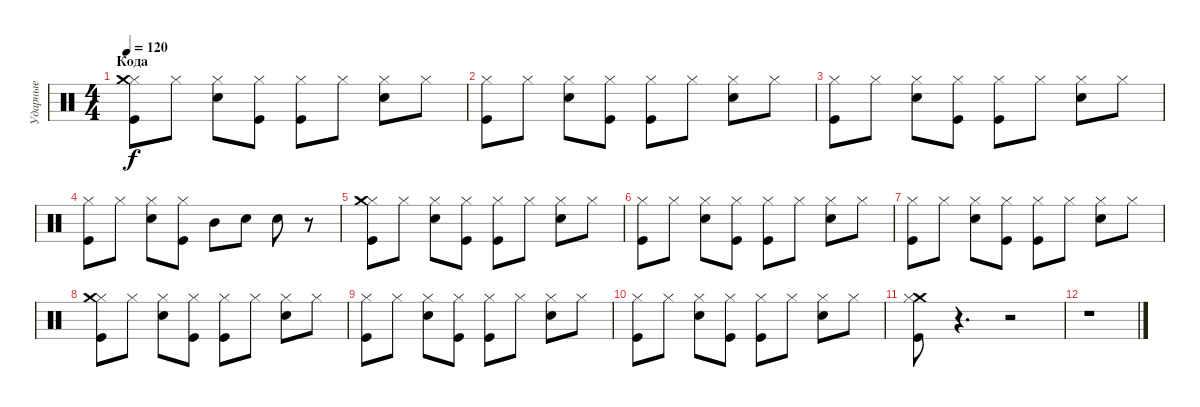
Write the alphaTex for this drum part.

\track ("Ударные" "Ударные") {instrument percussion}
\staff {score}
\articulation defaults
\ts (4 4)
\section ("" "Кода")
\tempo 120
\clef neutral
\ks c
("Kick (hit)" "Hi-Hat (closed)" "Crash medium (hit)").8{dy f} "Hi-Hat (closed)".8 ("Snare (hit) 2" "Hi-Hat (closed)").8 ("Kick (hit)" "Hi-Hat (closed)").8 ("Hi-Hat (closed)" "Kick (hit)").8 "Hi-Hat (closed)".8 ("Snare (hit) 2" "Hi-Hat (closed)").8 "Hi-Hat (closed)".8 |
("Kick (hit)" "Hi-Hat (closed)").8 "Hi-Hat (closed)".8 ("Snare (hit) 2" "Hi-Hat (closed)").8 ("Kick (hit)" "Hi-Hat (closed)").8 ("Hi-Hat (closed)" "Kick (hit)").8 "Hi-Hat (closed)".8 ("Snare (hit) 2" "Hi-Hat (closed)").8 "Hi-Hat (closed)".8 |
("Kick (hit)" "Hi-Hat (closed)").8 "Hi-Hat (closed)".8 ("Snare (hit) 2" "Hi-Hat (closed)").8 ("Kick (hit)" "Hi-Hat (closed)").8 ("Hi-Hat (closed)" "Kick (hit)").8 "Hi-Hat (closed)".8 ("Snare (hit) 2" "Hi-Hat (closed)").8 "Hi-Hat (closed)".8 |
("Kick (hit)" "Hi-Hat (closed)").8 "Hi-Hat (closed)".8 ("Snare (hit) 2" "Hi-Hat (closed)").8 ("Kick (hit)" "Hi-Hat (closed)").8 "Mid Tom (hit)".8 "Snare (hit) 2".8 "Snare (hit) 2".8 r.8 |
("Kick (hit)" "Hi-Hat (closed)" "Crash medium (hit)").8 "Hi-Hat (closed)".8 ("Snare (hit) 2" "Hi-Hat (closed)").8 ("Kick (hit)" "Hi-Hat (closed)").8 ("Hi-Hat (closed)" "Kick (hit)").8 "Hi-Hat (closed)".8 ("Snare (hit) 2" "Hi-Hat (closed)").8 "Hi-Hat (closed)".8 |
("Kick (hit)" "Hi-Hat (closed)").8 "Hi-Hat (closed)".8 ("Snare (hit) 2" "Hi-Hat (closed)").8 ("Kick (hit)" "Hi-Hat (closed)").8 ("Hi-Hat (closed)" "Kick (hit)").8 "Hi-Hat (closed)".8 ("Snare (hit) 2" "Hi-Hat (closed)").8 "Hi-Hat (closed)".8 |
("Kick (hit)" "Hi-Hat (closed)").8 "Hi-Hat (closed)".8 ("Snare (hit) 2" "Hi-Hat (closed)").8 ("Kick (hit)" "Hi-Hat (closed)").8 ("Hi-Hat (closed)" "Kick (hit)").8 "Hi-Hat (closed)".8 ("Snare (hit) 2" "Hi-Hat (closed)").8 "Hi-Hat (closed)".8 |
("Kick (hit)" "Hi-Hat (closed)" "Crash medium (hit)").8 "Hi-Hat (closed)".8 ("Snare (hit) 2" "Hi-Hat (closed)").8 ("Kick (hit)" "Hi-Hat (closed)").8 ("Hi-Hat (closed)" "Kick (hit)").8 "Hi-Hat (closed)".8 ("Snare (hit) 2" "Hi-Hat (closed)").8 "Hi-Hat (closed)".8 |
("Kick (hit)" "Hi-Hat (closed)").8 "Hi-Hat (closed)".8 ("Snare (hit) 2" "Hi-Hat (closed)").8 ("Kick (hit)" "Hi-Hat (closed)").8 ("Hi-Hat (closed)" "Kick (hit)").8 "Hi-Hat (closed)".8 ("Snare (hit) 2" "Hi-Hat (closed)").8 "Hi-Hat (closed)".8 |
("Kick (hit)" "Hi-Hat (closed)").8 "Hi-Hat (closed)".8 ("Snare (hit) 2" "Hi-Hat (closed)").8 ("Kick (hit)" "Hi-Hat (closed)").8 ("Hi-Hat (closed)" "Kick (hit)").8 "Hi-Hat (closed)".8 ("Snare (hit) 2" "Hi-Hat (closed)").8 "Hi-Hat (closed)".8 |
("Kick (hit)" "Crash medium (hit)" "Hi-Hat (closed)").8 r.4{d} r.2 |
r.1
